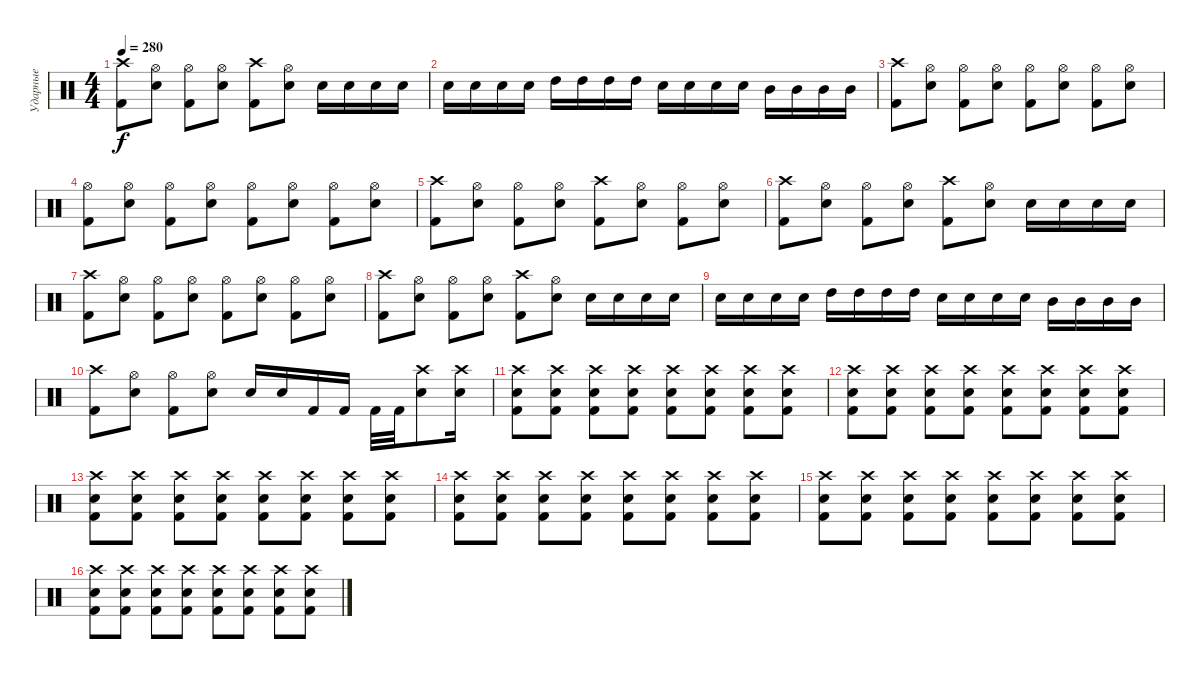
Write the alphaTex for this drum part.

\track ("Ударные" "Ударные") {instrument percussion}
\staff {score}
\articulation defaults
\ts (4 4)
\tempo 280
\clef neutral
\ks c
("Crash high (hit)" "Kick (hit) 2").8{dy f} ("Hi-Hat (open)" "Electric Snare (hit)").8 ("Hi-Hat (open)" "Kick (hit) 2").8 ("Hi-Hat (open)" "Electric Snare (hit)").8 ("Crash high (hit)" "Kick (hit) 2").8 ("Hi-Hat (open)" "Electric Snare (hit)").8 "Electric Snare (hit)".16 "Electric Snare (hit)".16 "Electric Snare (hit)".16 "Electric Snare (hit)".16 |
"Electric Snare (hit)".16 "Electric Snare (hit)".16 "Electric Snare (hit)".16 "Electric Snare (hit)".16 "High Tom (hit)".16 "High Tom (hit)".16 "High Tom (hit)".16 "High Tom (hit)".16 "Electric Snare (hit)".16 "Electric Snare (hit)".16 "Electric Snare (hit)".16 "Electric Snare (hit)".16 "Mid Tom (hit)".16 "Mid Tom (hit)".16 "Mid Tom (hit)".16 "Mid Tom (hit)".16 |
("Crash high (hit)" "Kick (hit) 2").8 ("Hi-Hat (open)" "Electric Snare (hit)").8 ("Hi-Hat (open)" "Kick (hit) 2").8 ("Hi-Hat (open)" "Electric Snare (hit)").8 ("Hi-Hat (open)" "Kick (hit) 2").8 ("Hi-Hat (open)" "Electric Snare (hit)").8 ("Hi-Hat (open)" "Kick (hit) 2").8 ("Hi-Hat (open)" "Electric Snare (hit)").8 |
("Hi-Hat (open)" "Kick (hit) 2").8 ("Hi-Hat (open)" "Electric Snare (hit)").8 ("Hi-Hat (open)" "Kick (hit) 2").8 ("Hi-Hat (open)" "Electric Snare (hit)").8 ("Hi-Hat (open)" "Kick (hit) 2").8 ("Hi-Hat (open)" "Electric Snare (hit)").8 ("Hi-Hat (open)" "Kick (hit) 2").8 ("Hi-Hat (open)" "Electric Snare (hit)").8 |
("Crash high (hit)" "Kick (hit) 2").8 ("Hi-Hat (open)" "Electric Snare (hit)").8 ("Hi-Hat (open)" "Kick (hit) 2").8 ("Hi-Hat (open)" "Electric Snare (hit)").8 ("Crash high (hit)" "Kick (hit) 2").8 ("Hi-Hat (open)" "Electric Snare (hit)").8 ("Hi-Hat (open)" "Kick (hit) 2").8 ("Hi-Hat (open)" "Electric Snare (hit)").8 |
("Crash high (hit)" "Kick (hit) 2").8 ("Hi-Hat (open)" "Electric Snare (hit)").8 ("Hi-Hat (open)" "Kick (hit) 2").8 ("Hi-Hat (open)" "Electric Snare (hit)").8 ("Crash high (hit)" "Kick (hit) 2").8 ("Hi-Hat (open)" "Electric Snare (hit)").8 "Electric Snare (hit)".16 "Electric Snare (hit)".16 "Electric Snare (hit)".16 "Electric Snare (hit)".16 |
("Crash high (hit)" "Kick (hit) 2").8 ("Hi-Hat (open)" "Electric Snare (hit)").8 ("Hi-Hat (open)" "Kick (hit) 2").8 ("Hi-Hat (open)" "Electric Snare (hit)").8 ("Hi-Hat (open)" "Kick (hit) 2").8 ("Hi-Hat (open)" "Electric Snare (hit)").8 ("Hi-Hat (open)" "Kick (hit) 2").8 ("Hi-Hat (open)" "Electric Snare (hit)").8 |
("Crash high (hit)" "Kick (hit) 2").8 ("Hi-Hat (open)" "Electric Snare (hit)").8 ("Hi-Hat (open)" "Kick (hit) 2").8 ("Hi-Hat (open)" "Electric Snare (hit)").8 ("Crash high (hit)" "Kick (hit) 2").8 ("Hi-Hat (open)" "Electric Snare (hit)").8 "Electric Snare (hit)".16 "Electric Snare (hit)".16 "Electric Snare (hit)".16 "Electric Snare (hit)".16 |
"Electric Snare (hit)".16 "Electric Snare (hit)".16 "Electric Snare (hit)".16 "Electric Snare (hit)".16 "High Tom (hit)".16 "High Tom (hit)".16 "High Tom (hit)".16 "High Tom (hit)".16 "Electric Snare (hit)".16 "Electric Snare (hit)".16 "Electric Snare (hit)".16 "Electric Snare (hit)".16 "Mid Tom (hit)".16 "Mid Tom (hit)".16 "Mid Tom (hit)".16 "Mid Tom (hit)".16 |
("Crash high (hit)" "Kick (hit) 2").8 ("Hi-Hat (open)" "Electric Snare (hit)").8 ("Hi-Hat (open)" "Kick (hit) 2").8 ("Hi-Hat (open)" "Electric Snare (hit)").8 "Electric Snare (hit)".16 "Electric Snare (hit)".16 "Kick (hit) 2".16 "Kick (hit) 2".16 "Kick (hit) 2".32 "Kick (hit) 2".32 ("Crash high (hit)" "Electric Snare (hit)").8 ("Crash high (hit)" "Electric Snare (hit)").16 |
("Crash high (hit)" "Electric Snare (hit)" "Kick (hit) 2").8 ("Crash high (hit)" "Electric Snare (hit)" "Kick (hit) 2").8 ("Crash high (hit)" "Electric Snare (hit)" "Kick (hit) 2").8 ("Crash high (hit)" "Electric Snare (hit)" "Kick (hit) 2").8 ("Crash high (hit)" "Electric Snare (hit)" "Kick (hit) 2").8 ("Crash high (hit)" "Electric Snare (hit)" "Kick (hit) 2").8 ("Crash high (hit)" "Electric Snare (hit)" "Kick (hit) 2").8 ("Crash high (hit)" "Electric Snare (hit)" "Kick (hit) 2").8 |
("Crash high (hit)" "Electric Snare (hit)" "Kick (hit) 2").8 ("Crash high (hit)" "Electric Snare (hit)" "Kick (hit) 2").8 ("Crash high (hit)" "Electric Snare (hit)" "Kick (hit) 2").8 ("Crash high (hit)" "Electric Snare (hit)" "Kick (hit) 2").8 ("Crash high (hit)" "Electric Snare (hit)" "Kick (hit) 2").8 ("Crash high (hit)" "Electric Snare (hit)" "Kick (hit) 2").8 ("Crash high (hit)" "Electric Snare (hit)" "Kick (hit) 2").8 ("Crash high (hit)" "Electric Snare (hit)" "Kick (hit) 2").8 |
("Crash high (hit)" "Electric Snare (hit)" "Kick (hit) 2").8 ("Crash high (hit)" "Electric Snare (hit)" "Kick (hit) 2").8 ("Crash high (hit)" "Electric Snare (hit)" "Kick (hit) 2").8 ("Crash high (hit)" "Electric Snare (hit)" "Kick (hit) 2").8 ("Crash high (hit)" "Electric Snare (hit)" "Kick (hit) 2").8 ("Crash high (hit)" "Electric Snare (hit)" "Kick (hit) 2").8 ("Crash high (hit)" "Electric Snare (hit)" "Kick (hit) 2").8 ("Crash high (hit)" "Electric Snare (hit)" "Kick (hit) 2").8 |
("Crash high (hit)" "Electric Snare (hit)" "Kick (hit) 2").8 ("Crash high (hit)" "Electric Snare (hit)" "Kick (hit) 2").8 ("Crash high (hit)" "Electric Snare (hit)" "Kick (hit) 2").8 ("Crash high (hit)" "Electric Snare (hit)" "Kick (hit) 2").8 ("Crash high (hit)" "Electric Snare (hit)" "Kick (hit) 2").8 ("Crash high (hit)" "Electric Snare (hit)" "Kick (hit) 2").8 ("Crash high (hit)" "Electric Snare (hit)" "Kick (hit) 2").8 ("Crash high (hit)" "Electric Snare (hit)" "Kick (hit) 2").8 |
("Crash high (hit)" "Electric Snare (hit)" "Kick (hit) 2").8 ("Crash high (hit)" "Electric Snare (hit)" "Kick (hit) 2").8 ("Crash high (hit)" "Electric Snare (hit)" "Kick (hit) 2").8 ("Crash high (hit)" "Electric Snare (hit)" "Kick (hit) 2").8 ("Crash high (hit)" "Electric Snare (hit)" "Kick (hit) 2").8 ("Crash high (hit)" "Electric Snare (hit)" "Kick (hit) 2").8 ("Crash high (hit)" "Electric Snare (hit)" "Kick (hit) 2").8 ("Crash high (hit)" "Electric Snare (hit)" "Kick (hit) 2").8 |
("Crash high (hit)" "Electric Snare (hit)" "Kick (hit) 2").8 ("Crash high (hit)" "Electric Snare (hit)" "Kick (hit) 2").8 ("Crash high (hit)" "Electric Snare (hit)" "Kick (hit) 2").8 ("Crash high (hit)" "Electric Snare (hit)" "Kick (hit) 2").8 ("Crash high (hit)" "Electric Snare (hit)" "Kick (hit) 2").8 ("Crash high (hit)" "Electric Snare (hit)" "Kick (hit) 2").8 ("Crash high (hit)" "Electric Snare (hit)" "Kick (hit) 2").8 ("Crash high (hit)" "Electric Snare (hit)" "Kick (hit) 2").8
